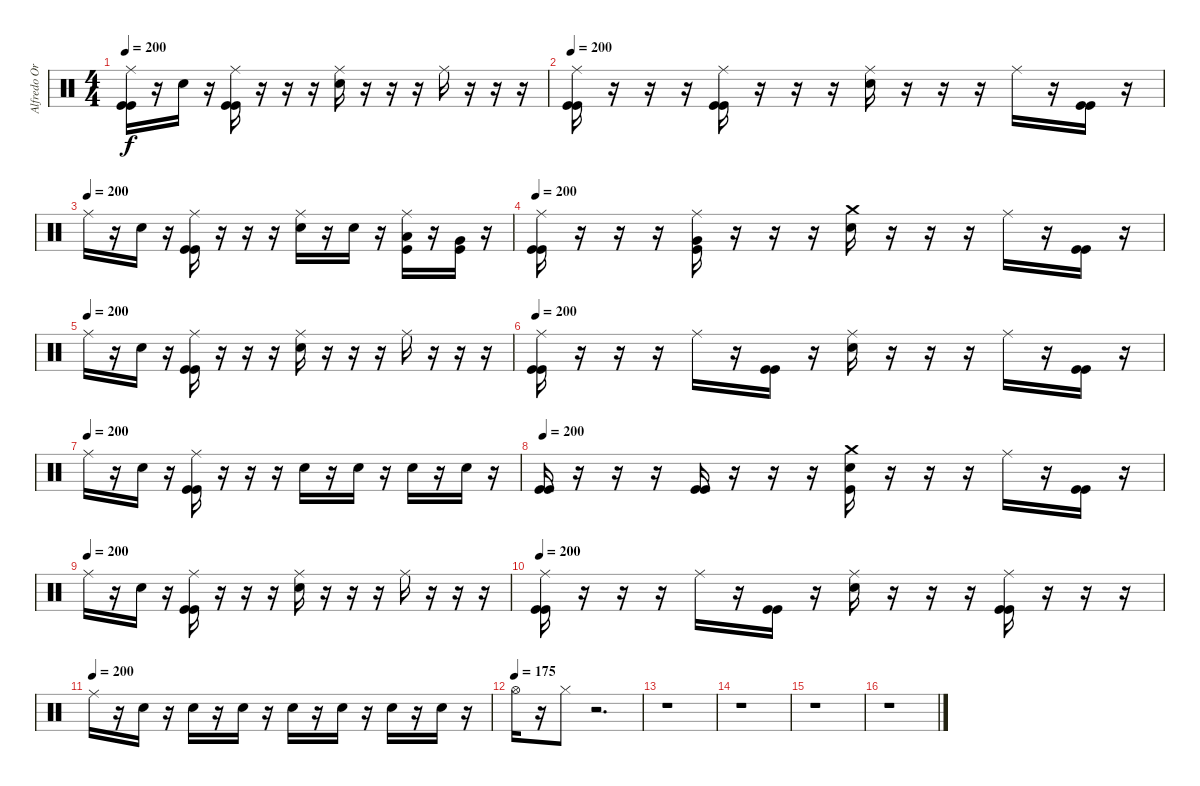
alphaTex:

\track ("Alfredo Ortiz" "Alfredo Or") {instrument percussion}
\staff {score}
\articulation defaults
\ts (4 4)
\tempo 200
\clef neutral
\ks c
("Ride (middle)" "Kick (hit)" "Kick (hit)").16{dy f} r.16 "Snare (hit) 2".16 r.16 ("Ride (middle)" "Kick (hit)" "Kick (hit)").16 r.16 r.16 r.16 ("Ride (middle)" "Snare (hit) 2").16 r.16 r.16 r.16 "Ride (middle)".16 r.16 r.16 r.16 |
\tempo 200
("Ride (middle)" "Kick (hit)" "Kick (hit)").16 r.16 r.16 r.16 ("Ride (middle)" "Kick (hit)" "Kick (hit)").16 r.16 r.16 r.16 ("Ride (middle)" "Snare (hit) 2").16 r.16 r.16 r.16 "Ride (middle)".16 r.16 ("Kick (hit)" "Kick (hit)").16 r.16 |
\tempo (200)
"Ride (middle)".16 r.16 "Snare (hit) 2".16 r.16 ("Ride (middle)" "Kick (hit)" "Kick (hit)").16 r.16 r.16 r.16 ("Ride (middle)" "Snare (hit) 2").16 r.16 "Snare (hit) 2".16 r.16 ("Ride (middle)" "Low Tom (hit)" "Kick (hit)").16 r.16 ("Very Low Tom (hit)" "Kick (hit)").16 r.16 |
\tempo 200
("Ride (middle)" "Kick (hit)" "Kick (hit)").16 r.16 r.16 r.16 ("Ride (middle)" "Very Low Tom (hit)" "Kick (hit)").16 r.16 r.16 r.16 ("Crash medium (hit)" "Snare (hit) 2").16 r.16 r.16 r.16 "Ride (middle)".16 r.16 ("Kick (hit)" "Kick (hit)").16 r.16 |
\tempo (200)
"Ride (middle)".16 r.16 "Snare (hit) 2".16 r.16 ("Ride (middle)" "Kick (hit)" "Kick (hit)").16 r.16 r.16 r.16 ("Ride (middle)" "Snare (hit) 2").16 r.16 r.16 r.16 "Ride (middle)".16 r.16 r.16 r.16 |
\tempo 200
("Ride (middle)" "Kick (hit)" "Kick (hit)").16 r.16 r.16 r.16 "Ride (middle)".16 r.16 ("Kick (hit)" "Kick (hit)").16 r.16 ("Ride (middle)" "Snare (hit) 2").16 r.16 r.16 r.16 "Ride (middle)".16 r.16 ("Kick (hit)" "Kick (hit)").16 r.16 |
\tempo (200)
"Ride (middle)".16 r.16 "Snare (hit) 2".16 r.16 ("Ride (middle)" "Kick (hit)" "Kick (hit)").16 r.16 r.16 r.16 "Snare (hit) 2".16 r.16 "Snare (hit) 2".16 r.16 "Snare (hit) 2".16 r.16 "Snare (hit) 2".16 r.16 |
\tempo 200
("Kick (hit)" "Kick (hit)").16 r.16 r.16 r.16 ("Kick (hit)" "Kick (hit)").16 r.16 r.16 r.16 ("Crash medium (hit)" "Snare (hit) 2" "Kick (hit)").16 r.16 r.16 r.16 "Ride (middle)".16 r.16 ("Kick (hit)" "Kick (hit)").16 r.16 |
\tempo (200)
"Ride (middle)".16 r.16 "Snare (hit) 2".16 r.16 ("Ride (middle)" "Kick (hit)" "Kick (hit)").16 r.16 r.16 r.16 ("Ride (middle)" "Snare (hit) 2").16 r.16 r.16 r.16 "Ride (middle)".16 r.16 r.16 r.16 |
\tempo 200
("Ride (middle)" "Kick (hit)" "Kick (hit)").16 r.16 r.16 r.16 "Ride (middle)".16 r.16 ("Kick (hit)" "Kick (hit)").16 r.16 ("Ride (middle)" "Snare (hit) 2").16 r.16 r.16 r.16 ("Ride (middle)" "Kick (hit)" "Kick (hit)").16 r.16 r.16 r.16 |
\tempo (200)
"Ride (middle)".16 r.16 "Snare (hit) 2".16 r.16 "Snare (hit) 2".16 r.16 "Snare (hit) 2".16 r.16 "Snare (hit) 2".16 r.16 "Snare (hit) 2".16 r.16 "Snare (hit) 2".16 r.16 "Snare (hit) 2".16 r.16 |
\tempo (175)
"Hi-Hat (open)".16 r.16 "Hi-Hat (closed)".8 r.2{d} |
r.1 |
r.1 |
r.1 |
r.1
